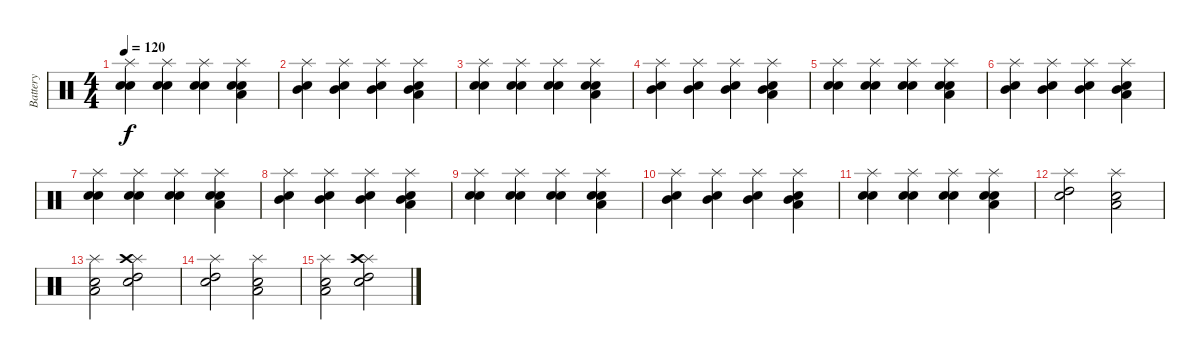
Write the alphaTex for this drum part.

\track ("Battery" "Battery") {instrument percussion}
\staff {score}
\articulation defaults
\ts (4 4)
\tempo 120
\clef neutral
\ks c
("Snare (hit) 2" "Electric Snare (hit)" "Splash (hit)").4{dy f} ("Snare (hit) 2" "Electric Snare (hit)" "Splash (hit)").4 ("Snare (hit) 2" "Electric Snare (hit)" "Splash (hit)").4 ("Snare (hit) 2" "Electric Snare (hit)" "Low Floor Tom (hit)" "Splash (hit)").4 |
("Snare (hit) 2" "Mid Tom (hit)" "Splash (hit)").4 ("Snare (hit) 2" "Mid Tom (hit)" "Splash (hit)").4 ("Snare (hit) 2" "Mid Tom (hit)" "Splash (hit)").4 ("Snare (hit) 2" "Mid Tom (hit)" "Low Floor Tom (hit)" "Splash (hit)").4 |
("Snare (hit) 2" "Electric Snare (hit)" "Splash (hit)").4 ("Snare (hit) 2" "Electric Snare (hit)" "Splash (hit)").4 ("Snare (hit) 2" "Electric Snare (hit)" "Splash (hit)").4 ("Snare (hit) 2" "Electric Snare (hit)" "Low Floor Tom (hit)" "Splash (hit)").4 |
("Snare (hit) 2" "Mid Tom (hit)" "Splash (hit)").4 ("Snare (hit) 2" "Mid Tom (hit)" "Splash (hit)").4 ("Snare (hit) 2" "Mid Tom (hit)" "Splash (hit)").4 ("Snare (hit) 2" "Mid Tom (hit)" "Low Floor Tom (hit)" "Splash (hit)").4 |
("Snare (hit) 2" "Electric Snare (hit)" "Splash (hit)").4 ("Snare (hit) 2" "Electric Snare (hit)" "Splash (hit)").4 ("Snare (hit) 2" "Electric Snare (hit)" "Splash (hit)").4 ("Snare (hit) 2" "Electric Snare (hit)" "Low Floor Tom (hit)" "Splash (hit)").4 |
("Snare (hit) 2" "Mid Tom (hit)" "Splash (hit)").4 ("Snare (hit) 2" "Mid Tom (hit)" "Splash (hit)").4 ("Snare (hit) 2" "Mid Tom (hit)" "Splash (hit)").4 ("Snare (hit) 2" "Mid Tom (hit)" "Low Floor Tom (hit)" "Splash (hit)").4 |
("Snare (hit) 2" "Electric Snare (hit)" "Splash (hit)").4 ("Snare (hit) 2" "Electric Snare (hit)" "Splash (hit)").4 ("Snare (hit) 2" "Electric Snare (hit)" "Splash (hit)").4 ("Snare (hit) 2" "Electric Snare (hit)" "Low Floor Tom (hit)" "Splash (hit)").4 |
("Snare (hit) 2" "Mid Tom (hit)" "Splash (hit)").4 ("Snare (hit) 2" "Mid Tom (hit)" "Splash (hit)").4 ("Snare (hit) 2" "Mid Tom (hit)" "Splash (hit)").4 ("Snare (hit) 2" "Mid Tom (hit)" "Low Floor Tom (hit)" "Splash (hit)").4 |
("Snare (hit) 2" "Electric Snare (hit)" "Splash (hit)").4 ("Snare (hit) 2" "Electric Snare (hit)" "Splash (hit)").4 ("Snare (hit) 2" "Electric Snare (hit)" "Splash (hit)").4 ("Snare (hit) 2" "Electric Snare (hit)" "Low Floor Tom (hit)" "Splash (hit)").4 |
("Snare (hit) 2" "Mid Tom (hit)" "Splash (hit)").4 ("Snare (hit) 2" "Mid Tom (hit)" "Splash (hit)").4 ("Snare (hit) 2" "Mid Tom (hit)" "Splash (hit)").4 ("Snare (hit) 2" "Mid Tom (hit)" "Low Floor Tom (hit)" "Splash (hit)").4 |
("Snare (hit) 2" "Electric Snare (hit)" "Splash (hit)").4 ("Snare (hit) 2" "Electric Snare (hit)" "Splash (hit)").4 ("Snare (hit) 2" "Electric Snare (hit)" "Splash (hit)").4 ("Snare (hit) 2" "Electric Snare (hit)" "Low Floor Tom (hit)" "Splash (hit)").4 |
("Snare (hit) 2" "Splash (hit)" "High Tom (hit)").2 ("Snare (hit) 2" "Splash (hit)" "Low Floor Tom (hit)").2 |
("Snare (hit) 2" "Splash (hit)" "Low Floor Tom (hit)").2 ("Snare (hit) 2" "Splash (hit)" "High Tom (hit)" "Crash high (hit)").2 |
("Snare (hit) 2" "Splash (hit)" "High Tom (hit)").2 ("Snare (hit) 2" "Splash (hit)" "Low Floor Tom (hit)").2 |
("Snare (hit) 2" "Splash (hit)" "Low Floor Tom (hit)").2 ("Snare (hit) 2" "Splash (hit)" "High Tom (hit)" "Crash high (hit)").2
